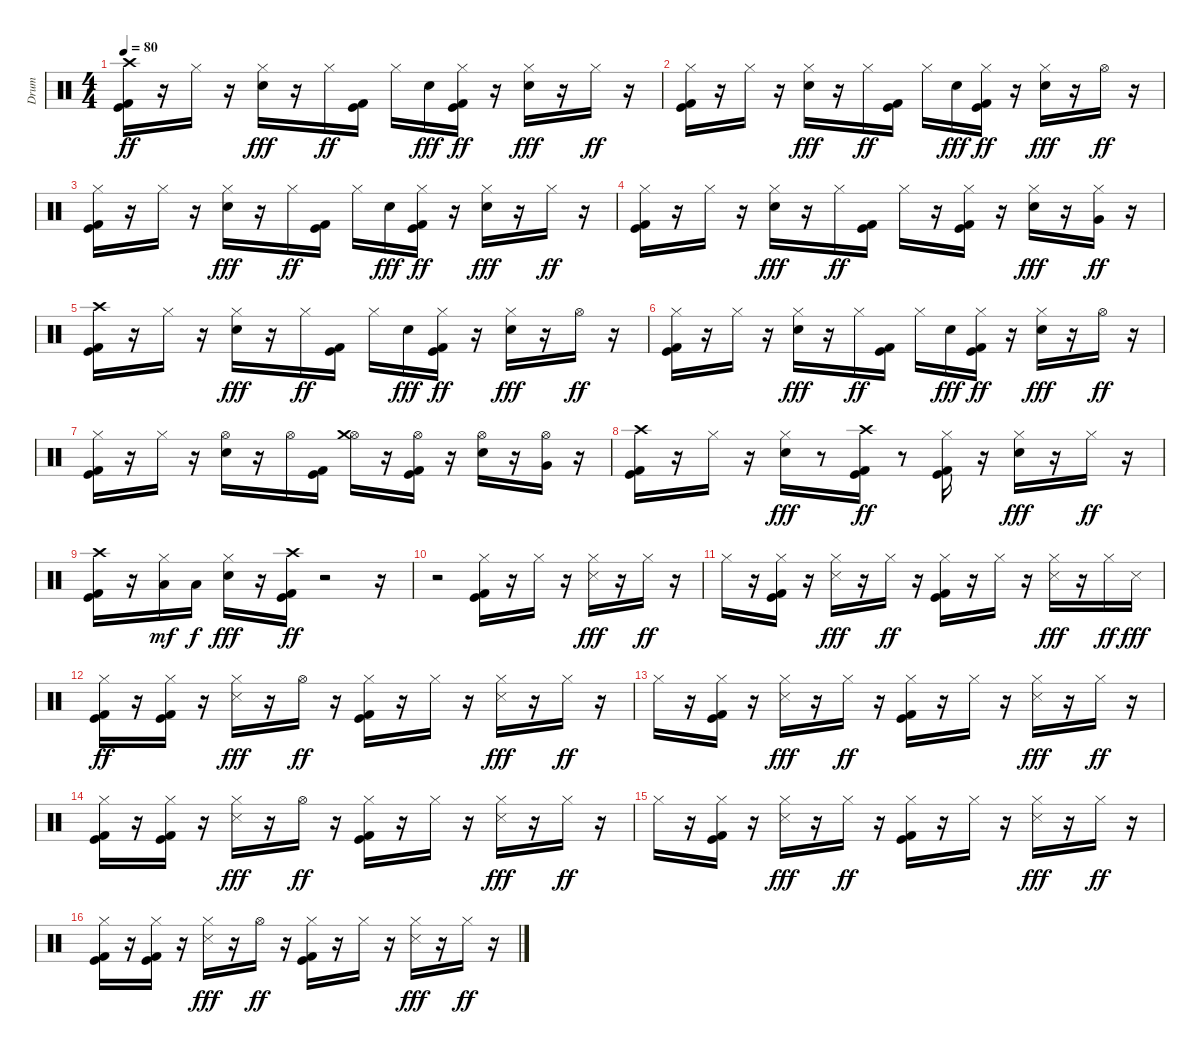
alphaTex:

\track ("Drum" "Drum") {instrument percussion}
\staff {score}
\articulation defaults
\ts (4 4)
\tempo 80
\clef neutral
\ks c
("Crash high (hit)" "Kick (hit)" "Kick (hit) 2").16{dy ff} r.16 "Hi-Hat (closed)".16 r.16 ("Hi-Hat (closed)" "Electric Snare (hit)").16{dy fff} r.16 "Hi-Hat (closed)".16{dy ff} ("Kick (hit)" "Kick (hit) 2").16 "Hi-Hat (closed)".16 "Electric Snare (hit)".16{dy fff} ("Hi-Hat (closed)" "Kick (hit)" "Kick (hit) 2").16{dy ff} r.16 ("Hi-Hat (closed)" "Electric Snare (hit)").16{dy fff} r.16 "Hi-Hat (closed)".16{dy ff} r.16 |
("Hi-Hat (closed)" "Kick (hit)" "Kick (hit) 2").16 r.16 "Hi-Hat (closed)".16 r.16 ("Hi-Hat (closed)" "Electric Snare (hit)").16{dy fff} r.16 "Hi-Hat (closed)".16{dy ff} ("Kick (hit)" "Kick (hit) 2").16 "Hi-Hat (closed)".16 "Electric Snare (hit)".16{dy fff} ("Hi-Hat (closed)" "Kick (hit)" "Kick (hit) 2").16{dy ff} r.16 ("Hi-Hat (closed)" "Electric Snare (hit)").16{dy fff} r.16 "Hi-Hat (open)".16{dy ff} r.16 |
("Kick (hit)" "Kick (hit) 2" "Hi-Hat (closed)").16 r.16 "Hi-Hat (closed)".16 r.16 ("Hi-Hat (closed)" "Electric Snare (hit)").16{dy fff} r.16 "Hi-Hat (closed)".16{dy ff} ("Kick (hit)" "Kick (hit) 2").16 "Hi-Hat (closed)".16 "Electric Snare (hit)".16{dy fff} ("Hi-Hat (closed)" "Kick (hit)" "Kick (hit) 2").16{dy ff} r.16 ("Hi-Hat (closed)" "Electric Snare (hit)").16{dy fff} r.16 "Hi-Hat (closed)".16{dy ff} r.16 |
("Hi-Hat (closed)" "Kick (hit)" "Kick (hit) 2").16 r.16 "Hi-Hat (closed)".16 r.16 ("Hi-Hat (closed)" "Electric Snare (hit)").16{dy fff} r.16 "Hi-Hat (closed)".16{dy ff} ("Kick (hit)" "Kick (hit) 2").16 "Hi-Hat (closed)".16 r.16 ("Hi-Hat (closed)" "Kick (hit)" "Kick (hit) 2").16 r.16 ("Hi-Hat (closed)" "Electric Snare (hit)").16{dy fff} r.16 ("Hi-Hat (closed)" "Very Low Tom (hit)").16{dy ff} r.16 |
("Crash high (hit)" "Kick (hit)" "Kick (hit) 2").16 r.16 "Hi-Hat (closed)".16 r.16 ("Hi-Hat (closed)" "Electric Snare (hit)").16{dy fff} r.16 "Hi-Hat (closed)".16{dy ff} ("Kick (hit)" "Kick (hit) 2").16 "Hi-Hat (closed)".16 "Electric Snare (hit)".16{dy fff} ("Hi-Hat (closed)" "Kick (hit)" "Kick (hit) 2").16{dy ff} r.16 ("Hi-Hat (closed)" "Electric Snare (hit)").16{dy fff} r.16 "Hi-Hat (open)".16{dy ff} r.16 |
("Hi-Hat (closed)" "Kick (hit)" "Kick (hit) 2").16 r.16 "Hi-Hat (closed)".16 r.16 ("Hi-Hat (closed)" "Electric Snare (hit)").16{dy fff} r.16 "Hi-Hat (closed)".16{dy ff} ("Kick (hit)" "Kick (hit) 2").16 "Hi-Hat (closed)".16 "Electric Snare (hit)".16{dy fff} ("Hi-Hat (closed)" "Kick (hit)" "Kick (hit) 2").16{dy ff} r.16 ("Hi-Hat (closed)" "Electric Snare (hit)").16{dy fff} r.16 "Hi-Hat (open)".16{dy ff} r.16 |
("Hi-Hat (closed)" "Kick (hit)" "Kick (hit) 2").16 r.16 "Hi-Hat (closed)".16 r.16 ("Electric Snare (hit)" "Hi-Hat (open)").16 r.16 "Hi-Hat (open)".16 ("Kick (hit)" "Kick (hit) 2").16 ("Hi-Hat (open)" "Crash medium (hit)").16 r.16 ("Kick (hit)" "Kick (hit) 2" "Hi-Hat (open)").16 r.16 ("Electric Snare (hit)" "Hi-Hat (open)").16 r.16 ("Hi-Hat (open)" "Very Low Tom (hit)").16 r.16 |
("Crash high (hit)" "Kick (hit)" "Kick (hit) 2").16 r.16 "Hi-Hat (closed)".16 r.16 ("Hi-Hat (closed)" "Electric Snare (hit)").16{dy fff} r.8 ("Kick (hit)" "Kick (hit) 2" "Crash high (hit)").16{dy ff} r.8 ("Kick (hit)" "Kick (hit) 2" "Hi-Hat (closed)").16 r.16 ("Hi-Hat (closed)" "Electric Snare (hit)").16{dy fff} r.16 "Hi-Hat (closed)".16{dy ff} r.16 |
("Kick (hit)" "Kick (hit) 2" "Crash high (hit)").16 r.16 ("Hi-Hat (closed)" "Low Tom (hit)").16{dy mf} "Low Tom (hit)".16{dy f} ("Hi-Hat (closed)" "Electric Snare (hit)").16{dy fff} r.16 ("Kick (hit)" "Kick (hit) 2" "Crash high (hit)").16{dy ff} r.2 r.16 |
r.2 ("Kick (hit)" "Kick (hit) 2" "Hi-Hat (closed)").16 r.16 "Hi-Hat (closed)".16 r.16 ("Hi-Hat (closed)" "Snare (side stick) 3").16{dy fff} r.16 "Hi-Hat (closed)".16{dy ff} r.16 |
"Hi-Hat (closed)".16 r.16 ("Kick (hit)" "Kick (hit) 2" "Hi-Hat (closed)").16 r.16 ("Hi-Hat (closed)" "Snare (side stick) 3").16{dy fff} r.16 "Hi-Hat (closed)".16{dy ff} r.16 ("Kick (hit)" "Kick (hit) 2" "Hi-Hat (closed)").16 r.16 "Hi-Hat (closed)".16 r.16 ("Hi-Hat (closed)" "Snare (side stick) 3").16{dy fff} r.16 "Hi-Hat (closed)".16{dy ff} "Snare (side stick) 3".16{dy fff} |
("Kick (hit)" "Kick (hit) 2" "Hi-Hat (closed)").16{dy ff} r.16 ("Kick (hit)" "Kick (hit) 2" "Hi-Hat (closed)").16 r.16 ("Hi-Hat (closed)" "Snare (side stick) 3").16{dy fff} r.16 "Hi-Hat (open)".16{dy ff} r.16 ("Kick (hit)" "Kick (hit) 2" "Hi-Hat (closed)").16 r.16 "Hi-Hat (closed)".16 r.16 ("Hi-Hat (closed)" "Snare (side stick) 3").16{dy fff} r.16 "Hi-Hat (closed)".16{dy ff} r.16 |
"Hi-Hat (closed)".16 r.16 ("Kick (hit)" "Kick (hit) 2" "Hi-Hat (closed)").16 r.16 ("Hi-Hat (closed)" "Snare (side stick) 3").16{dy fff} r.16 "Hi-Hat (closed)".16{dy ff} r.16 ("Kick (hit)" "Kick (hit) 2" "Hi-Hat (closed)").16 r.16 "Hi-Hat (closed)".16 r.16 ("Hi-Hat (closed)" "Snare (side stick) 3").16{dy fff} r.16 "Hi-Hat (closed)".16{dy ff} r.16 |
("Kick (hit)" "Kick (hit) 2" "Hi-Hat (closed)").16 r.16 ("Kick (hit)" "Kick (hit) 2" "Hi-Hat (closed)").16 r.16 ("Hi-Hat (closed)" "Snare (side stick) 3").16{dy fff} r.16 "Hi-Hat (open)".16{dy ff} r.16 ("Kick (hit)" "Kick (hit) 2" "Hi-Hat (closed)").16 r.16 "Hi-Hat (closed)".16 r.16 ("Hi-Hat (closed)" "Snare (side stick) 3").16{dy fff} r.16 "Hi-Hat (closed)".16{dy ff} r.16 |
"Hi-Hat (closed)".16 r.16 ("Kick (hit)" "Kick (hit) 2" "Hi-Hat (closed)").16 r.16 ("Hi-Hat (closed)" "Snare (side stick) 3").16{dy fff} r.16 "Hi-Hat (closed)".16{dy ff} r.16 ("Kick (hit)" "Kick (hit) 2" "Hi-Hat (closed)").16 r.16 "Hi-Hat (closed)".16 r.16 ("Hi-Hat (closed)" "Snare (side stick) 3").16{dy fff} r.16 "Hi-Hat (closed)".16{dy ff} r.16 |
("Kick (hit)" "Kick (hit) 2" "Hi-Hat (closed)").16 r.16 ("Kick (hit)" "Kick (hit) 2" "Hi-Hat (closed)").16 r.16 ("Hi-Hat (closed)" "Snare (side stick) 3").16{dy fff} r.16 "Hi-Hat (open)".16{dy ff} r.16 ("Kick (hit)" "Kick (hit) 2" "Hi-Hat (closed)").16 r.16 "Hi-Hat (closed)".16 r.16 ("Hi-Hat (closed)" "Snare (side stick) 3").16{dy fff} r.16 "Hi-Hat (closed)".16{dy ff} r.16
